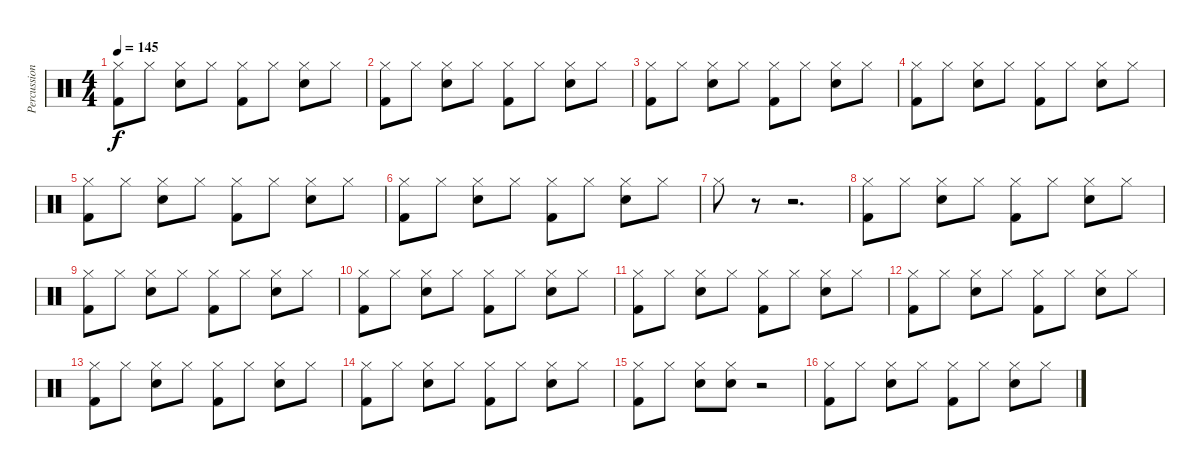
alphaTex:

\track ("Percussion (Other)" "Percussion") {instrument percussion}
\staff {score}
\articulation defaults
\ts (4 4)
\tempo 145
\clef neutral
\ks c
("Hi-Hat (closed)" "Kick (hit) 2").8{dy f} "Hi-Hat (closed)".8 ("Hi-Hat (closed)" "Snare (hit) 2").8 "Hi-Hat (closed)".8 ("Hi-Hat (closed)" "Kick (hit) 2").8 "Hi-Hat (closed)".8 ("Hi-Hat (closed)" "Snare (hit) 2").8 "Hi-Hat (closed)".8 |
("Hi-Hat (closed)" "Kick (hit) 2").8 "Hi-Hat (closed)".8 ("Hi-Hat (closed)" "Snare (hit) 2").8 "Hi-Hat (closed)".8 ("Hi-Hat (closed)" "Kick (hit) 2").8 "Hi-Hat (closed)".8 ("Hi-Hat (closed)" "Snare (hit) 2").8 "Hi-Hat (closed)".8 |
("Hi-Hat (closed)" "Kick (hit) 2").8 "Hi-Hat (closed)".8 ("Hi-Hat (closed)" "Snare (hit) 2").8 "Hi-Hat (closed)".8 ("Hi-Hat (closed)" "Kick (hit) 2").8 "Hi-Hat (closed)".8 ("Hi-Hat (closed)" "Snare (hit) 2").8 "Hi-Hat (closed)".8 |
("Hi-Hat (closed)" "Kick (hit) 2").8 "Hi-Hat (closed)".8 ("Hi-Hat (closed)" "Snare (hit) 2").8 "Hi-Hat (closed)".8 ("Hi-Hat (closed)" "Kick (hit) 2").8 "Hi-Hat (closed)".8 ("Hi-Hat (closed)" "Snare (hit) 2").8 "Hi-Hat (closed)".8 |
("Hi-Hat (closed)" "Kick (hit) 2").8 "Hi-Hat (closed)".8 ("Hi-Hat (closed)" "Snare (hit) 2").8 "Hi-Hat (closed)".8 ("Hi-Hat (closed)" "Kick (hit) 2").8 "Hi-Hat (closed)".8 ("Hi-Hat (closed)" "Snare (hit) 2").8 "Hi-Hat (closed)".8 |
("Hi-Hat (closed)" "Kick (hit) 2").8 "Hi-Hat (closed)".8 ("Hi-Hat (closed)" "Snare (hit) 2").8 "Hi-Hat (closed)".8 ("Hi-Hat (closed)" "Kick (hit) 2").8 "Hi-Hat (closed)".8 ("Hi-Hat (closed)" "Snare (hit) 2").8 "Hi-Hat (closed)".8 |
"Hi-Hat (closed)".8 r.8 r.2{d} |
("Hi-Hat (closed)" "Kick (hit) 2").8 "Hi-Hat (closed)".8 ("Hi-Hat (closed)" "Snare (hit) 2").8 "Hi-Hat (closed)".8 ("Hi-Hat (closed)" "Kick (hit) 2").8 "Hi-Hat (closed)".8 ("Hi-Hat (closed)" "Snare (hit) 2").8 "Hi-Hat (closed)".8 |
("Hi-Hat (closed)" "Kick (hit) 2").8 "Hi-Hat (closed)".8 ("Hi-Hat (closed)" "Snare (hit) 2").8 "Hi-Hat (closed)".8 ("Hi-Hat (closed)" "Kick (hit) 2").8 "Hi-Hat (closed)".8 ("Hi-Hat (closed)" "Snare (hit) 2").8 "Hi-Hat (closed)".8 |
("Hi-Hat (closed)" "Kick (hit) 2").8 "Hi-Hat (closed)".8 ("Hi-Hat (closed)" "Snare (hit) 2").8 "Hi-Hat (closed)".8 ("Hi-Hat (closed)" "Kick (hit) 2").8 "Hi-Hat (closed)".8 ("Hi-Hat (closed)" "Snare (hit) 2").8 "Hi-Hat (closed)".8 |
("Hi-Hat (closed)" "Kick (hit) 2").8 "Hi-Hat (closed)".8 ("Hi-Hat (closed)" "Snare (hit) 2").8 "Hi-Hat (closed)".8 ("Hi-Hat (closed)" "Kick (hit) 2").8 "Hi-Hat (closed)".8 ("Hi-Hat (closed)" "Snare (hit) 2").8 "Hi-Hat (closed)".8 |
("Hi-Hat (closed)" "Kick (hit) 2").8 "Hi-Hat (closed)".8 ("Hi-Hat (closed)" "Snare (hit) 2").8 "Hi-Hat (closed)".8 ("Hi-Hat (closed)" "Kick (hit) 2").8 "Hi-Hat (closed)".8 ("Hi-Hat (closed)" "Snare (hit) 2").8 "Hi-Hat (closed)".8 |
("Hi-Hat (closed)" "Kick (hit) 2").8 "Hi-Hat (closed)".8 ("Hi-Hat (closed)" "Snare (hit) 2").8 "Hi-Hat (closed)".8 ("Hi-Hat (closed)" "Kick (hit) 2").8 "Hi-Hat (closed)".8 ("Hi-Hat (closed)" "Snare (hit) 2").8 "Hi-Hat (closed)".8 |
("Hi-Hat (closed)" "Kick (hit) 2").8 "Hi-Hat (closed)".8 ("Hi-Hat (closed)" "Snare (hit) 2").8 "Hi-Hat (closed)".8 ("Hi-Hat (closed)" "Kick (hit) 2").8 "Hi-Hat (closed)".8 ("Hi-Hat (closed)" "Snare (hit) 2").8 "Hi-Hat (closed)".8 |
("Hi-Hat (closed)" "Kick (hit) 2").8 "Hi-Hat (closed)".8 ("Hi-Hat (closed)" "Snare (hit) 2").8 ("Hi-Hat (closed)" "Snare (hit) 2").8 r.2 |
("Hi-Hat (closed)" "Kick (hit) 2").8 "Hi-Hat (closed)".8 ("Hi-Hat (closed)" "Snare (hit) 2").8 "Hi-Hat (closed)".8 ("Hi-Hat (closed)" "Kick (hit) 2").8 "Hi-Hat (closed)".8 ("Hi-Hat (closed)" "Snare (hit) 2").8 "Hi-Hat (closed)".8
